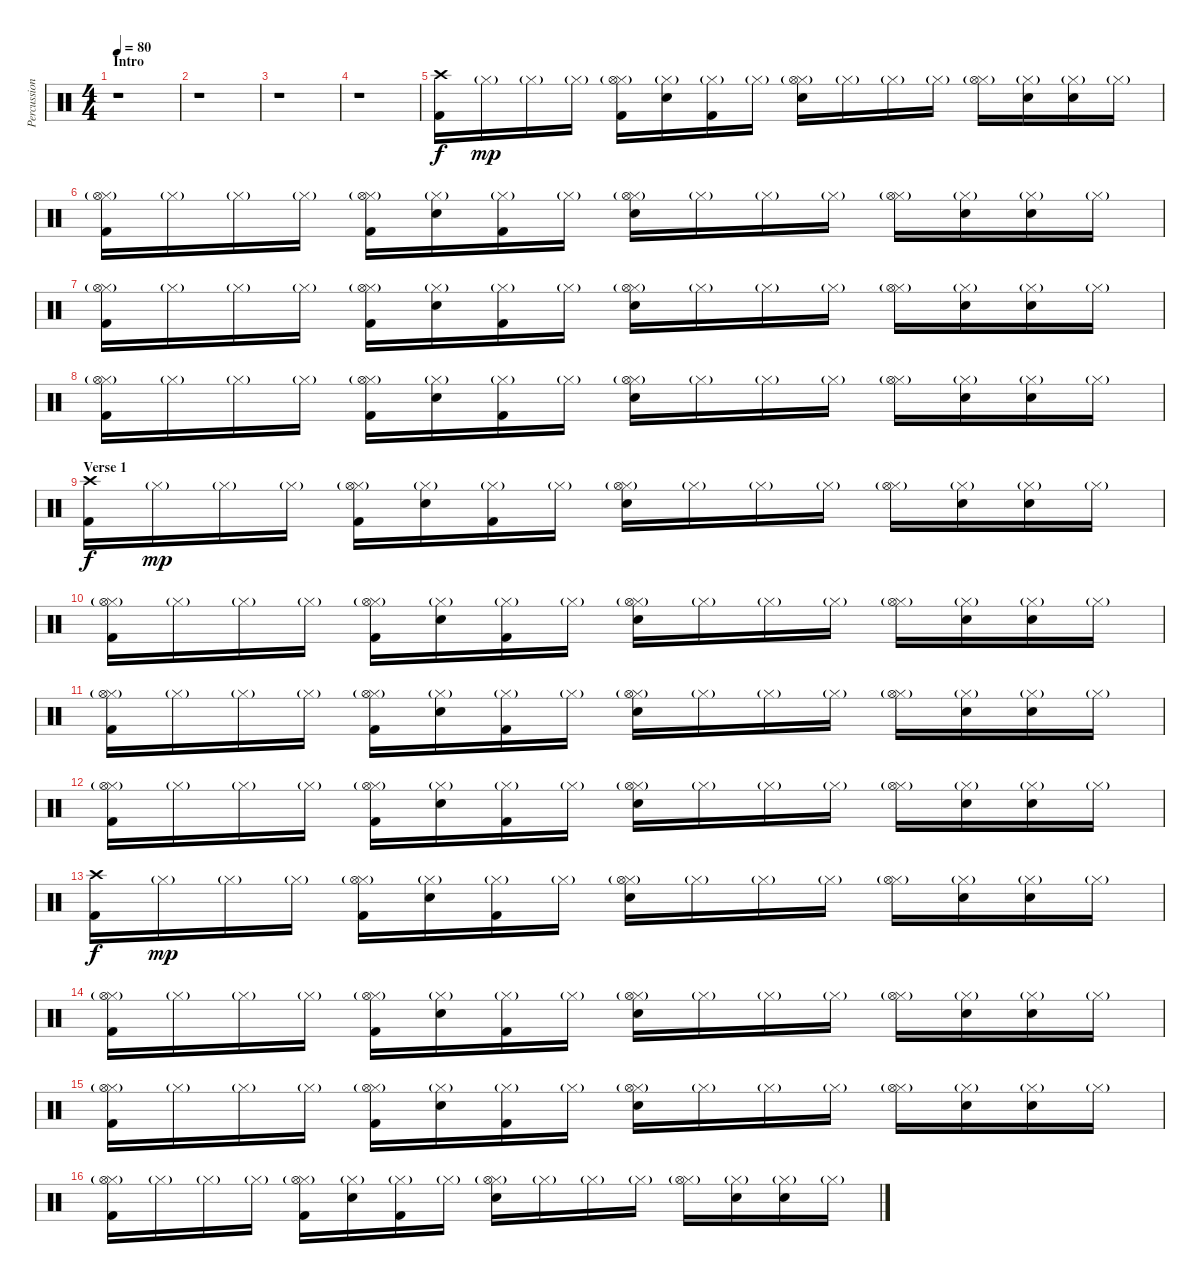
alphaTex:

\track ("Percussions" "Percussion") {instrument percussion}
\staff {score}
\articulation defaults
\ts (4 4)
\section ("" "Intro")
\tempo 80
\clef neutral
\ks c
r.1{dy f} |
r.1 |
r.1 |
r.1 |
("Crash high (hit)" "Kick (hit) 2").16 "Hi-Hat (closed)"{g}.16{dy mp} "Hi-Hat (closed)"{g}.16 "Hi-Hat (closed)"{g}.16 ("Hi-Hat (closed)"{g} "Hi-Hat (open)" "Kick (hit) 2").16 ("Hi-Hat (closed)"{g} "Hand Clap (hit)").16 ("Hi-Hat (closed)"{g} "Kick (hit) 2").16 "Hi-Hat (closed)"{g}.16 ("Hi-Hat (closed)"{g} "Hi-Hat (open)" "Snare (hit) 2").16 "Hi-Hat (closed)"{g}.16 "Hi-Hat (closed)"{g}.16 "Hi-Hat (closed)"{g}.16 ("Hi-Hat (closed)"{g} "Hi-Hat (open)").16 ("Hi-Hat (closed)"{g} "Hand Clap (hit)").16 ("Hi-Hat (closed)"{g} "Snare (hit) 2").16 "Hi-Hat (closed)"{g}.16 |
("Hi-Hat (closed)"{g} "Hi-Hat (open)" "Kick (hit) 2").16 "Hi-Hat (closed)"{g}.16 "Hi-Hat (closed)"{g}.16 "Hi-Hat (closed)"{g}.16 ("Hi-Hat (closed)"{g} "Hi-Hat (open)" "Kick (hit) 2").16 ("Hi-Hat (closed)"{g} "Hand Clap (hit)").16 ("Hi-Hat (closed)"{g} "Kick (hit) 2").16 "Hi-Hat (closed)"{g}.16 ("Hi-Hat (closed)"{g} "Hi-Hat (open)" "Snare (hit) 2").16 "Hi-Hat (closed)"{g}.16 "Hi-Hat (closed)"{g}.16 "Hi-Hat (closed)"{g}.16 ("Hi-Hat (closed)"{g} "Hi-Hat (open)").16 ("Hi-Hat (closed)"{g} "Hand Clap (hit)").16 ("Hi-Hat (closed)"{g} "Snare (hit) 2").16 "Hi-Hat (closed)"{g}.16 |
("Hi-Hat (closed)"{g} "Hi-Hat (open)" "Kick (hit) 2").16 "Hi-Hat (closed)"{g}.16 "Hi-Hat (closed)"{g}.16 "Hi-Hat (closed)"{g}.16 ("Hi-Hat (closed)"{g} "Hi-Hat (open)" "Kick (hit) 2").16 ("Hi-Hat (closed)"{g} "Hand Clap (hit)").16 ("Hi-Hat (closed)"{g} "Kick (hit) 2").16 "Hi-Hat (closed)"{g}.16 ("Hi-Hat (closed)"{g} "Hi-Hat (open)" "Snare (hit) 2").16 "Hi-Hat (closed)"{g}.16 "Hi-Hat (closed)"{g}.16 "Hi-Hat (closed)"{g}.16 ("Hi-Hat (closed)"{g} "Hi-Hat (open)").16 ("Hi-Hat (closed)"{g} "Hand Clap (hit)").16 ("Hi-Hat (closed)"{g} "Snare (hit) 2").16 "Hi-Hat (closed)"{g}.16 |
("Hi-Hat (closed)"{g} "Hi-Hat (open)" "Kick (hit) 2").16 "Hi-Hat (closed)"{g}.16 "Hi-Hat (closed)"{g}.16 "Hi-Hat (closed)"{g}.16 ("Hi-Hat (closed)"{g} "Hi-Hat (open)" "Kick (hit) 2").16 ("Hi-Hat (closed)"{g} "Hand Clap (hit)").16 ("Hi-Hat (closed)"{g} "Kick (hit) 2").16 "Hi-Hat (closed)"{g}.16 ("Hi-Hat (closed)"{g} "Hi-Hat (open)" "Snare (hit) 2").16 "Hi-Hat (closed)"{g}.16 "Hi-Hat (closed)"{g}.16 "Hi-Hat (closed)"{g}.16 ("Hi-Hat (closed)"{g} "Hi-Hat (open)").16 ("Hi-Hat (closed)"{g} "Hand Clap (hit)").16 ("Hi-Hat (closed)"{g} "Snare (hit) 2").16 "Hi-Hat (closed)"{g}.16 |
\section ("" "Verse 1")
("Crash high (hit)" "Kick (hit) 2").16{dy f} "Hi-Hat (closed)"{g}.16{dy mp} "Hi-Hat (closed)"{g}.16 "Hi-Hat (closed)"{g}.16 ("Hi-Hat (closed)"{g} "Hi-Hat (open)" "Kick (hit) 2").16 ("Hi-Hat (closed)"{g} "Hand Clap (hit)").16 ("Hi-Hat (closed)"{g} "Kick (hit) 2").16 "Hi-Hat (closed)"{g}.16 ("Hi-Hat (closed)"{g} "Hi-Hat (open)" "Snare (hit) 2").16 "Hi-Hat (closed)"{g}.16 "Hi-Hat (closed)"{g}.16 "Hi-Hat (closed)"{g}.16 ("Hi-Hat (closed)"{g} "Hi-Hat (open)").16 ("Hi-Hat (closed)"{g} "Hand Clap (hit)").16 ("Hi-Hat (closed)"{g} "Snare (hit) 2").16 "Hi-Hat (closed)"{g}.16 |
("Hi-Hat (closed)"{g} "Hi-Hat (open)" "Kick (hit) 2").16 "Hi-Hat (closed)"{g}.16 "Hi-Hat (closed)"{g}.16 "Hi-Hat (closed)"{g}.16 ("Hi-Hat (closed)"{g} "Hi-Hat (open)" "Kick (hit) 2").16 ("Hi-Hat (closed)"{g} "Hand Clap (hit)").16 ("Hi-Hat (closed)"{g} "Kick (hit) 2").16 "Hi-Hat (closed)"{g}.16 ("Hi-Hat (closed)"{g} "Hi-Hat (open)" "Snare (hit) 2").16 "Hi-Hat (closed)"{g}.16 "Hi-Hat (closed)"{g}.16 "Hi-Hat (closed)"{g}.16 ("Hi-Hat (closed)"{g} "Hi-Hat (open)").16 ("Hi-Hat (closed)"{g} "Hand Clap (hit)").16 ("Hi-Hat (closed)"{g} "Snare (hit) 2").16 "Hi-Hat (closed)"{g}.16 |
("Hi-Hat (closed)"{g} "Hi-Hat (open)" "Kick (hit) 2").16 "Hi-Hat (closed)"{g}.16 "Hi-Hat (closed)"{g}.16 "Hi-Hat (closed)"{g}.16 ("Hi-Hat (closed)"{g} "Hi-Hat (open)" "Kick (hit) 2").16 ("Hi-Hat (closed)"{g} "Hand Clap (hit)").16 ("Hi-Hat (closed)"{g} "Kick (hit) 2").16 "Hi-Hat (closed)"{g}.16 ("Hi-Hat (closed)"{g} "Hi-Hat (open)" "Snare (hit) 2").16 "Hi-Hat (closed)"{g}.16 "Hi-Hat (closed)"{g}.16 "Hi-Hat (closed)"{g}.16 ("Hi-Hat (closed)"{g} "Hi-Hat (open)").16 ("Hi-Hat (closed)"{g} "Hand Clap (hit)").16 ("Hi-Hat (closed)"{g} "Snare (hit) 2").16 "Hi-Hat (closed)"{g}.16 |
("Hi-Hat (closed)"{g} "Hi-Hat (open)" "Kick (hit) 2").16 "Hi-Hat (closed)"{g}.16 "Hi-Hat (closed)"{g}.16 "Hi-Hat (closed)"{g}.16 ("Hi-Hat (closed)"{g} "Hi-Hat (open)" "Kick (hit) 2").16 ("Hi-Hat (closed)"{g} "Hand Clap (hit)").16 ("Hi-Hat (closed)"{g} "Kick (hit) 2").16 "Hi-Hat (closed)"{g}.16 ("Hi-Hat (closed)"{g} "Hi-Hat (open)" "Snare (hit) 2").16 "Hi-Hat (closed)"{g}.16 "Hi-Hat (closed)"{g}.16 "Hi-Hat (closed)"{g}.16 ("Hi-Hat (closed)"{g} "Hi-Hat (open)").16 ("Hi-Hat (closed)"{g} "Hand Clap (hit)").16 ("Hi-Hat (closed)"{g} "Snare (hit) 2").16 "Hi-Hat (closed)"{g}.16 |
("Crash high (hit)" "Kick (hit) 2").16{dy f} "Hi-Hat (closed)"{g}.16{dy mp} "Hi-Hat (closed)"{g}.16 "Hi-Hat (closed)"{g}.16 ("Hi-Hat (closed)"{g} "Hi-Hat (open)" "Kick (hit) 2").16 ("Hi-Hat (closed)"{g} "Hand Clap (hit)").16 ("Hi-Hat (closed)"{g} "Kick (hit) 2").16 "Hi-Hat (closed)"{g}.16 ("Hi-Hat (closed)"{g} "Hi-Hat (open)" "Snare (hit) 2").16 "Hi-Hat (closed)"{g}.16 "Hi-Hat (closed)"{g}.16 "Hi-Hat (closed)"{g}.16 ("Hi-Hat (closed)"{g} "Hi-Hat (open)").16 ("Hi-Hat (closed)"{g} "Hand Clap (hit)").16 ("Hi-Hat (closed)"{g} "Snare (hit) 2").16 "Hi-Hat (closed)"{g}.16 |
("Hi-Hat (closed)"{g} "Hi-Hat (open)" "Kick (hit) 2").16 "Hi-Hat (closed)"{g}.16 "Hi-Hat (closed)"{g}.16 "Hi-Hat (closed)"{g}.16 ("Hi-Hat (closed)"{g} "Hi-Hat (open)" "Kick (hit) 2").16 ("Hi-Hat (closed)"{g} "Hand Clap (hit)").16 ("Hi-Hat (closed)"{g} "Kick (hit) 2").16 "Hi-Hat (closed)"{g}.16 ("Hi-Hat (closed)"{g} "Hi-Hat (open)" "Snare (hit) 2").16 "Hi-Hat (closed)"{g}.16 "Hi-Hat (closed)"{g}.16 "Hi-Hat (closed)"{g}.16 ("Hi-Hat (closed)"{g} "Hi-Hat (open)").16 ("Hi-Hat (closed)"{g} "Hand Clap (hit)").16 ("Hi-Hat (closed)"{g} "Snare (hit) 2").16 "Hi-Hat (closed)"{g}.16 |
("Hi-Hat (closed)"{g} "Hi-Hat (open)" "Kick (hit) 2").16 "Hi-Hat (closed)"{g}.16 "Hi-Hat (closed)"{g}.16 "Hi-Hat (closed)"{g}.16 ("Hi-Hat (closed)"{g} "Hi-Hat (open)" "Kick (hit) 2").16 ("Hi-Hat (closed)"{g} "Hand Clap (hit)").16 ("Hi-Hat (closed)"{g} "Kick (hit) 2").16 "Hi-Hat (closed)"{g}.16 ("Hi-Hat (closed)"{g} "Hi-Hat (open)" "Snare (hit) 2").16 "Hi-Hat (closed)"{g}.16 "Hi-Hat (closed)"{g}.16 "Hi-Hat (closed)"{g}.16 ("Hi-Hat (closed)"{g} "Hi-Hat (open)").16 ("Hi-Hat (closed)"{g} "Hand Clap (hit)").16 ("Hi-Hat (closed)"{g} "Snare (hit) 2").16 "Hi-Hat (closed)"{g}.16 |
("Hi-Hat (closed)"{g} "Hi-Hat (open)" "Kick (hit) 2").16 "Hi-Hat (closed)"{g}.16 "Hi-Hat (closed)"{g}.16 "Hi-Hat (closed)"{g}.16 ("Hi-Hat (closed)"{g} "Hi-Hat (open)" "Kick (hit) 2").16 ("Hi-Hat (closed)"{g} "Hand Clap (hit)").16 ("Hi-Hat (closed)"{g} "Kick (hit) 2").16 "Hi-Hat (closed)"{g}.16 ("Hi-Hat (closed)"{g} "Hi-Hat (open)" "Snare (hit) 2").16 "Hi-Hat (closed)"{g}.16 "Hi-Hat (closed)"{g}.16 "Hi-Hat (closed)"{g}.16 ("Hi-Hat (closed)"{g} "Hi-Hat (open)").16 ("Hi-Hat (closed)"{g} "Hand Clap (hit)").16 ("Hi-Hat (closed)"{g} "Snare (hit) 2").16 "Hi-Hat (closed)"{g}.16
